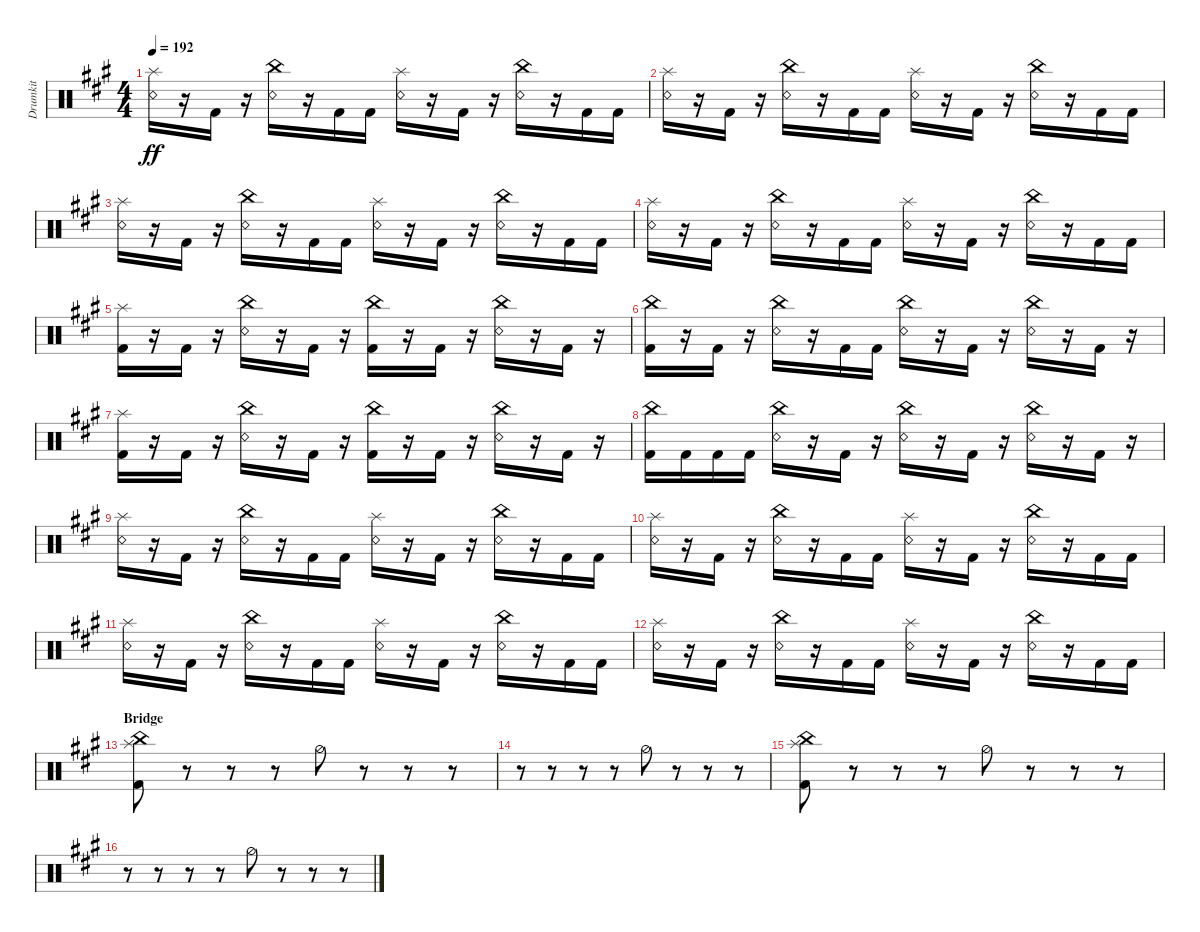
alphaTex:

\track ("Drumkit" "Drumkit") {instrument percussion}
\staff {score}
\articulation defaults
\ts (4 4)
\tempo 192
\clef neutral
\ks a
("Snare (rim shot)" "Splash (hit)").16{dy ff} r.16 "Kick (hit) 2".16 r.16 ("China (hit)" "Snare (rim shot)").16 r.16 "Kick (hit) 2".16 "Kick (hit) 2".16 ("Snare (rim shot)" "Splash (hit)").16 r.16 "Kick (hit) 2".16 r.16 ("China (hit)" "Snare (rim shot)").16 r.16 "Kick (hit) 2".16 "Kick (hit) 2".16 |
("Snare (rim shot)" "Splash (hit)").16 r.16 "Kick (hit) 2".16 r.16 ("China (hit)" "Snare (rim shot)").16 r.16 "Kick (hit) 2".16 "Kick (hit) 2".16 ("Snare (rim shot)" "Splash (hit)").16 r.16 "Kick (hit) 2".16 r.16 ("China (hit)" "Snare (rim shot)").16 r.16 "Kick (hit) 2".16 "Kick (hit) 2".16 |
("Snare (rim shot)" "Splash (hit)").16 r.16 "Kick (hit) 2".16 r.16 ("China (hit)" "Snare (rim shot)").16 r.16 "Kick (hit) 2".16 "Kick (hit) 2".16 ("Snare (rim shot)" "Splash (hit)").16 r.16 "Kick (hit) 2".16 r.16 ("China (hit)" "Snare (rim shot)").16 r.16 "Kick (hit) 2".16 "Kick (hit) 2".16 |
("Snare (rim shot)" "Splash (hit)").16 r.16 "Kick (hit) 2".16 r.16 ("China (hit)" "Snare (rim shot)").16 r.16 "Kick (hit) 2".16 "Kick (hit) 2".16 ("Snare (rim shot)" "Splash (hit)").16 r.16 "Kick (hit) 2".16 r.16 ("China (hit)" "Snare (rim shot)").16 r.16 "Kick (hit) 2".16 "Kick (hit) 2".16 |
("Kick (hit) 2" "Splash (hit)").16 r.16 "Kick (hit) 2".16 r.16 ("China (hit)" "Snare (rim shot)").16 r.16 "Kick (hit) 2".16 r.16 ("China (hit)" "Kick (hit) 2").16 r.16 "Kick (hit) 2".16 r.16 ("China (hit)" "Snare (rim shot)").16 r.16 "Kick (hit) 2".16 r.16 |
("Kick (hit) 2" "China (hit)").16 r.16 "Kick (hit) 2".16 r.16 ("China (hit)" "Snare (rim shot)").16 r.16 "Kick (hit) 2".16 "Kick (hit) 2".16 ("China (hit)" "Snare (rim shot)").16 r.16 "Kick (hit) 2".16 r.16 ("China (hit)" "Snare (rim shot)").16 r.16 "Kick (hit) 2".16 r.16 |
("Kick (hit) 2" "Splash (hit)").16 r.16 "Kick (hit) 2".16 r.16 ("China (hit)" "Snare (rim shot)").16 r.16 "Kick (hit) 2".16 r.16 ("China (hit)" "Kick (hit) 2").16 r.16 "Kick (hit) 2".16 r.16 ("China (hit)" "Snare (rim shot)").16 r.16 "Kick (hit) 2".16 r.16 |
("Kick (hit) 2" "China (hit)").16 "Kick (hit) 2".16 "Kick (hit) 2".16 "Kick (hit) 2".16 ("China (hit)" "Snare (rim shot)").16 r.16 "Kick (hit) 2".16 r.16 ("China (hit)" "Snare (rim shot)").16 r.16 "Kick (hit) 2".16 r.16 ("China (hit)" "Snare (rim shot)").16 r.16 "Kick (hit) 2".16 r.16 |
("Snare (rim shot)" "Splash (hit)").16 r.16 "Kick (hit) 2".16 r.16 ("China (hit)" "Snare (rim shot)").16 r.16 "Kick (hit) 2".16 "Kick (hit) 2".16 ("Snare (rim shot)" "Splash (hit)").16 r.16 "Kick (hit) 2".16 r.16 ("China (hit)" "Snare (rim shot)").16 r.16 "Kick (hit) 2".16 "Kick (hit) 2".16 |
("Snare (rim shot)" "Splash (hit)").16 r.16 "Kick (hit) 2".16 r.16 ("China (hit)" "Snare (rim shot)").16 r.16 "Kick (hit) 2".16 "Kick (hit) 2".16 ("Snare (rim shot)" "Splash (hit)").16 r.16 "Kick (hit) 2".16 r.16 ("China (hit)" "Snare (rim shot)").16 r.16 "Kick (hit) 2".16 "Kick (hit) 2".16 |
("Snare (rim shot)" "Splash (hit)").16 r.16 "Kick (hit) 2".16 r.16 ("China (hit)" "Snare (rim shot)").16 r.16 "Kick (hit) 2".16 "Kick (hit) 2".16 ("Snare (rim shot)" "Splash (hit)").16 r.16 "Kick (hit) 2".16 r.16 ("China (hit)" "Snare (rim shot)").16 r.16 "Kick (hit) 2".16 "Kick (hit) 2".16 |
("Snare (rim shot)" "Splash (hit)").16 r.16 "Kick (hit) 2".16 r.16 ("China (hit)" "Snare (rim shot)").16 r.16 "Kick (hit) 2".16 "Kick (hit) 2".16 ("Snare (rim shot)" "Splash (hit)").16 r.16 "Kick (hit) 2".16 r.16 ("China (hit)" "Snare (rim shot)").16 r.16 "Kick (hit) 2".16 "Kick (hit) 2".16 |
\section ("" "Bridge")
("Kick (hit) 2" "Splash (hit)" "China (hit)").8 r.8 r.8 r.8 "Hi-Hat (half)".8 r.8 r.8 r.8 |
r.8 r.8 r.8 r.8 "Hi-Hat (half)".8 r.8 r.8 r.8 |
("Kick (hit) 2" "Splash (hit)" "China (hit)").8 r.8 r.8 r.8 "Hi-Hat (half)".8 r.8 r.8 r.8 |
r.8 r.8 r.8 r.8 "Hi-Hat (half)".8 r.8 r.8 r.8
